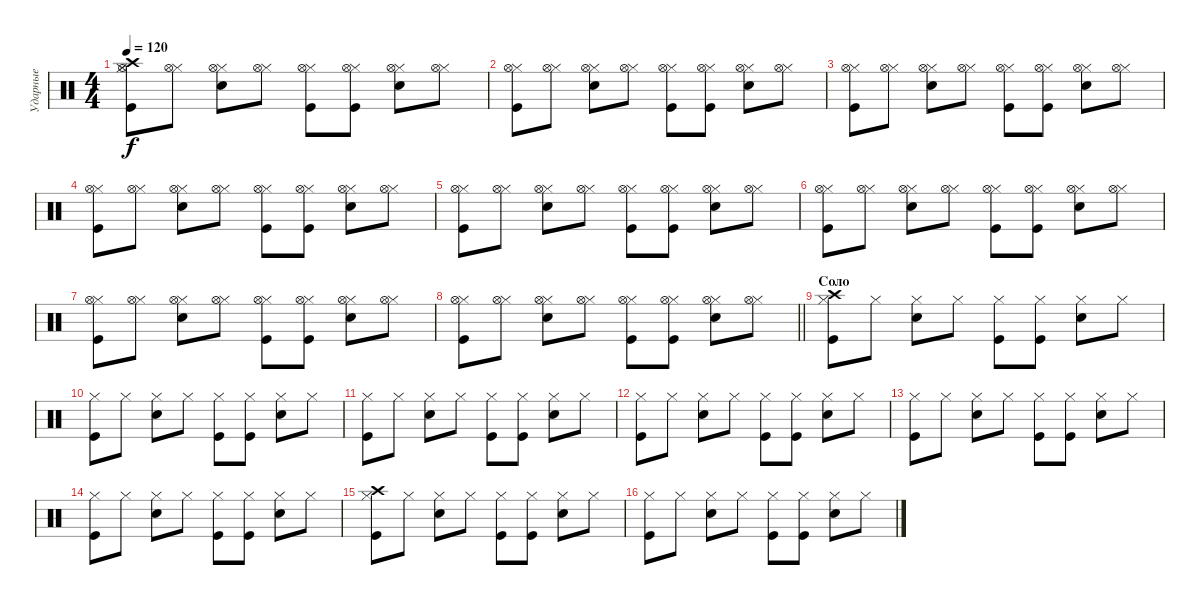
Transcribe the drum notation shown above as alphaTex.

\track ("Ударные" "Ударные") {instrument percussion}
\staff {score}
\articulation defaults
\ts (4 4)
\tempo 120
\clef neutral
\ks c
("Hi-Hat (closed)" "Kick (hit)" "Crash high (hit)" "Hi-Hat (open)").8{dy f} ("Hi-Hat (closed)" "Hi-Hat (open)").8 ("Hi-Hat (closed)" "Snare (hit) 2" "Hi-Hat (open)").8 ("Hi-Hat (closed)" "Hi-Hat (open)").8 ("Hi-Hat (closed)" "Kick (hit)" "Hi-Hat (open)").8 ("Hi-Hat (closed)" "Kick (hit)" "Hi-Hat (open)").8 ("Hi-Hat (closed)" "Snare (hit) 2" "Hi-Hat (open)").8 ("Hi-Hat (closed)" "Hi-Hat (open)").8 |
("Hi-Hat (closed)" "Kick (hit)" "Hi-Hat (open)").8 ("Hi-Hat (closed)" "Hi-Hat (open)").8 ("Hi-Hat (closed)" "Snare (hit) 2" "Hi-Hat (open)").8 ("Hi-Hat (closed)" "Hi-Hat (open)").8 ("Hi-Hat (closed)" "Kick (hit)" "Hi-Hat (open)").8 ("Hi-Hat (closed)" "Kick (hit)" "Hi-Hat (open)").8 ("Hi-Hat (closed)" "Snare (hit) 2" "Hi-Hat (open)").8 ("Hi-Hat (closed)" "Hi-Hat (open)").8 |
("Hi-Hat (closed)" "Kick (hit)" "Hi-Hat (open)").8 ("Hi-Hat (closed)" "Hi-Hat (open)").8 ("Hi-Hat (closed)" "Snare (hit) 2" "Hi-Hat (open)").8 ("Hi-Hat (closed)" "Hi-Hat (open)").8 ("Hi-Hat (closed)" "Kick (hit)" "Hi-Hat (open)").8 ("Hi-Hat (closed)" "Kick (hit)" "Hi-Hat (open)").8 ("Hi-Hat (closed)" "Snare (hit) 2" "Hi-Hat (open)").8 ("Hi-Hat (closed)" "Hi-Hat (open)").8 |
("Hi-Hat (closed)" "Kick (hit)" "Hi-Hat (open)").8 ("Hi-Hat (closed)" "Hi-Hat (open)").8 ("Hi-Hat (closed)" "Snare (hit) 2" "Hi-Hat (open)").8 ("Hi-Hat (closed)" "Hi-Hat (open)").8 ("Hi-Hat (closed)" "Kick (hit)" "Hi-Hat (open)").8 ("Hi-Hat (closed)" "Kick (hit)" "Hi-Hat (open)").8 ("Hi-Hat (closed)" "Snare (hit) 2" "Hi-Hat (open)").8 ("Hi-Hat (closed)" "Hi-Hat (open)").8 |
("Hi-Hat (closed)" "Kick (hit)" "Hi-Hat (open)").8 ("Hi-Hat (closed)" "Hi-Hat (open)").8 ("Hi-Hat (closed)" "Snare (hit) 2" "Hi-Hat (open)").8 ("Hi-Hat (closed)" "Hi-Hat (open)").8 ("Hi-Hat (closed)" "Kick (hit)" "Hi-Hat (open)").8 ("Hi-Hat (closed)" "Kick (hit)" "Hi-Hat (open)").8 ("Hi-Hat (closed)" "Snare (hit) 2" "Hi-Hat (open)").8 ("Hi-Hat (closed)" "Hi-Hat (open)").8 |
("Hi-Hat (closed)" "Kick (hit)" "Hi-Hat (open)").8 ("Hi-Hat (closed)" "Hi-Hat (open)").8 ("Hi-Hat (closed)" "Snare (hit) 2" "Hi-Hat (open)").8 ("Hi-Hat (closed)" "Hi-Hat (open)").8 ("Hi-Hat (closed)" "Kick (hit)" "Hi-Hat (open)").8 ("Hi-Hat (closed)" "Kick (hit)" "Hi-Hat (open)").8 ("Hi-Hat (closed)" "Snare (hit) 2" "Hi-Hat (open)").8 ("Hi-Hat (closed)" "Hi-Hat (open)").8 |
("Hi-Hat (closed)" "Kick (hit)" "Hi-Hat (open)").8 ("Hi-Hat (closed)" "Hi-Hat (open)").8 ("Hi-Hat (closed)" "Snare (hit) 2" "Hi-Hat (open)").8 ("Hi-Hat (closed)" "Hi-Hat (open)").8 ("Hi-Hat (closed)" "Kick (hit)" "Hi-Hat (open)").8 ("Hi-Hat (closed)" "Kick (hit)" "Hi-Hat (open)").8 ("Hi-Hat (closed)" "Snare (hit) 2" "Hi-Hat (open)").8 ("Hi-Hat (closed)" "Hi-Hat (open)").8 |
\barLineRight lightlight
("Hi-Hat (closed)" "Kick (hit)" "Hi-Hat (open)").8 ("Hi-Hat (closed)" "Hi-Hat (open)").8 ("Hi-Hat (closed)" "Snare (hit) 2" "Hi-Hat (open)").8 ("Hi-Hat (closed)" "Hi-Hat (open)").8 ("Hi-Hat (closed)" "Kick (hit)" "Hi-Hat (open)").8 ("Hi-Hat (closed)" "Kick (hit)" "Hi-Hat (open)").8 ("Hi-Hat (closed)" "Snare (hit) 2" "Hi-Hat (open)").8 ("Hi-Hat (closed)" "Hi-Hat (open)").8 |
\section ("" "Соло")
("Hi-Hat (closed)" "Kick (hit)" "Crash high (hit)").8 "Hi-Hat (closed)".8 ("Hi-Hat (closed)" "Snare (hit) 2").8 "Hi-Hat (closed)".8 ("Hi-Hat (closed)" "Kick (hit)").8 ("Hi-Hat (closed)" "Kick (hit)").8 ("Hi-Hat (closed)" "Snare (hit) 2").8 "Hi-Hat (closed)".8 |
("Hi-Hat (closed)" "Kick (hit)").8 "Hi-Hat (closed)".8 ("Hi-Hat (closed)" "Snare (hit) 2").8 "Hi-Hat (closed)".8 ("Hi-Hat (closed)" "Kick (hit)").8 ("Hi-Hat (closed)" "Kick (hit)").8 ("Hi-Hat (closed)" "Snare (hit) 2").8 "Hi-Hat (closed)".8 |
("Hi-Hat (closed)" "Kick (hit)").8 "Hi-Hat (closed)".8 ("Hi-Hat (closed)" "Snare (hit) 2").8 "Hi-Hat (closed)".8 ("Hi-Hat (closed)" "Kick (hit)").8 ("Hi-Hat (closed)" "Kick (hit)").8 ("Hi-Hat (closed)" "Snare (hit) 2").8 "Hi-Hat (closed)".8 |
("Hi-Hat (closed)" "Kick (hit)").8 "Hi-Hat (closed)".8 ("Hi-Hat (closed)" "Snare (hit) 2").8 "Hi-Hat (closed)".8 ("Hi-Hat (closed)" "Kick (hit)").8 ("Hi-Hat (closed)" "Kick (hit)").8 ("Hi-Hat (closed)" "Snare (hit) 2").8 "Hi-Hat (closed)".8 |
("Hi-Hat (closed)" "Kick (hit)").8 "Hi-Hat (closed)".8 ("Hi-Hat (closed)" "Snare (hit) 2").8 "Hi-Hat (closed)".8 ("Hi-Hat (closed)" "Kick (hit)").8 ("Hi-Hat (closed)" "Kick (hit)").8 ("Hi-Hat (closed)" "Snare (hit) 2").8 "Hi-Hat (closed)".8 |
("Hi-Hat (closed)" "Kick (hit)").8 "Hi-Hat (closed)".8 ("Hi-Hat (closed)" "Snare (hit) 2").8 "Hi-Hat (closed)".8 ("Hi-Hat (closed)" "Kick (hit)").8 ("Hi-Hat (closed)" "Kick (hit)").8 ("Hi-Hat (closed)" "Snare (hit) 2").8 "Hi-Hat (closed)".8 |
("Hi-Hat (closed)" "Kick (hit)" "Crash high (hit)").8 "Hi-Hat (closed)".8 ("Hi-Hat (closed)" "Snare (hit) 2").8 "Hi-Hat (closed)".8 ("Hi-Hat (closed)" "Kick (hit)").8 ("Hi-Hat (closed)" "Kick (hit)").8 ("Hi-Hat (closed)" "Snare (hit) 2").8 "Hi-Hat (closed)".8 |
("Hi-Hat (closed)" "Kick (hit)").8 "Hi-Hat (closed)".8 ("Hi-Hat (closed)" "Snare (hit) 2").8 "Hi-Hat (closed)".8 ("Hi-Hat (closed)" "Kick (hit)").8 ("Hi-Hat (closed)" "Kick (hit)").8 ("Hi-Hat (closed)" "Snare (hit) 2").8 "Hi-Hat (closed)".8
